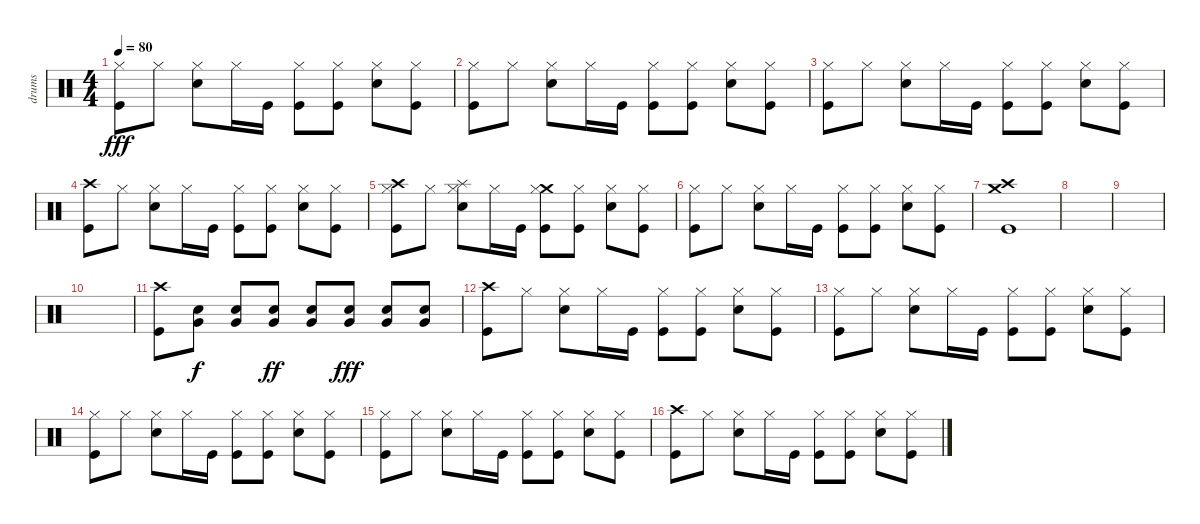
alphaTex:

\track ("drums" "drums") {instrument percussion}
\staff {score}
\articulation defaults
\ts (4 4)
\tempo 80
\clef neutral
\ks c
("Hi-Hat (closed)" "Kick (hit)").8{dy fff} "Hi-Hat (closed)".8 ("Hi-Hat (closed)" "Snare (hit) 2").8 "Hi-Hat (closed)".16 "Kick (hit)".16 ("Hi-Hat (closed)" "Kick (hit)").8 ("Hi-Hat (closed)" "Kick (hit)").8 ("Hi-Hat (closed)" "Snare (hit) 2").8 ("Hi-Hat (closed)" "Kick (hit)").8 |
("Hi-Hat (closed)" "Kick (hit)").8 "Hi-Hat (closed)".8 ("Hi-Hat (closed)" "Snare (hit) 2").8 "Hi-Hat (closed)".16 "Kick (hit)".16 ("Hi-Hat (closed)" "Kick (hit)").8 ("Hi-Hat (closed)" "Kick (hit)").8 ("Hi-Hat (closed)" "Snare (hit) 2").8 ("Hi-Hat (closed)" "Kick (hit)").8 |
("Hi-Hat (closed)" "Kick (hit)").8 "Hi-Hat (closed)".8 ("Hi-Hat (closed)" "Snare (hit) 2").8 "Hi-Hat (closed)".16 "Kick (hit)".16 ("Hi-Hat (closed)" "Kick (hit)").8 ("Hi-Hat (closed)" "Kick (hit)").8 ("Hi-Hat (closed)" "Snare (hit) 2").8 ("Hi-Hat (closed)" "Kick (hit)").8 |
("Crash high (hit)" "Kick (hit)").8 "Hi-Hat (closed)".8 ("Hi-Hat (closed)" "Snare (hit) 2").8 "Hi-Hat (closed)".16 "Kick (hit)".16 ("Hi-Hat (closed)" "Kick (hit)").8 ("Hi-Hat (closed)" "Kick (hit)").8 ("Hi-Hat (closed)" "Snare (hit) 2").8 ("Hi-Hat (closed)" "Kick (hit)").8 |
("Crash high (hit)" "Hi-Hat (closed)" "Kick (hit)").8 "Hi-Hat (closed)".8 ("Splash (hit)" "Hi-Hat (closed)" "Snare (hit) 2").8 "Hi-Hat (closed)".16 "Kick (hit)".16 ("Crash medium (hit)" "Hi-Hat (closed)" "Kick (hit)").8 ("Hi-Hat (closed)" "Kick (hit)").8 ("Hi-Hat (closed)" "Snare (hit) 2").8 ("Hi-Hat (closed)" "Kick (hit)").8 |
("Hi-Hat (closed)" "Kick (hit)").8 "Hi-Hat (closed)".8 ("Hi-Hat (closed)" "Snare (hit) 2").8 "Hi-Hat (closed)".16 "Kick (hit)".16 ("Hi-Hat (closed)" "Kick (hit)").8 ("Hi-Hat (closed)" "Kick (hit)").8 ("Hi-Hat (closed)" "Snare (hit) 2").8 ("Hi-Hat (closed)" "Kick (hit)").8 |
("Crash high (hit)" "Crash medium (hit)" "Kick (hit)").1 |
|
|
|
("Crash high (hit)" "Kick (hit)").8 ("Very Low Tom (hit)" "Snare (hit) 2").8{dy f} ("Very Low Tom (hit)" "Snare (hit) 2").8 ("Very Low Tom (hit)" "Snare (hit) 2").8{dy ff} ("Very Low Tom (hit)" "Snare (hit) 2").8 ("Very Low Tom (hit)" "Snare (hit) 2").8{dy fff} ("Very Low Tom (hit)" "Snare (hit) 2").8 ("Very Low Tom (hit)" "Snare (hit) 2").8 |
("Crash high (hit)" "Kick (hit)").8 "Hi-Hat (closed)".8 ("Hi-Hat (closed)" "Snare (hit) 2").8 "Hi-Hat (closed)".16 "Kick (hit)".16 ("Hi-Hat (closed)" "Kick (hit)").8 ("Hi-Hat (closed)" "Kick (hit)").8 ("Hi-Hat (closed)" "Snare (hit) 2").8 ("Hi-Hat (closed)" "Kick (hit)").8 |
("Hi-Hat (closed)" "Kick (hit)").8 "Hi-Hat (closed)".8 ("Hi-Hat (closed)" "Snare (hit) 2").8 "Hi-Hat (closed)".16 "Kick (hit)".16 ("Hi-Hat (closed)" "Kick (hit)").8 ("Hi-Hat (closed)" "Kick (hit)").8 ("Hi-Hat (closed)" "Snare (hit) 2").8 ("Hi-Hat (closed)" "Kick (hit)").8 |
("Hi-Hat (closed)" "Kick (hit)").8 "Hi-Hat (closed)".8 ("Hi-Hat (closed)" "Snare (hit) 2").8 "Hi-Hat (closed)".16 "Kick (hit)".16 ("Hi-Hat (closed)" "Kick (hit)").8 ("Hi-Hat (closed)" "Kick (hit)").8 ("Hi-Hat (closed)" "Snare (hit) 2").8 ("Hi-Hat (closed)" "Kick (hit)").8 |
("Hi-Hat (closed)" "Kick (hit)").8 "Hi-Hat (closed)".8 ("Hi-Hat (closed)" "Snare (hit) 2").8 "Hi-Hat (closed)".16 "Kick (hit)".16 ("Hi-Hat (closed)" "Kick (hit)").8 ("Hi-Hat (closed)" "Kick (hit)").8 ("Hi-Hat (closed)" "Snare (hit) 2").8 ("Hi-Hat (closed)" "Kick (hit)").8 |
("Crash high (hit)" "Kick (hit)").8 "Hi-Hat (closed)".8 ("Hi-Hat (closed)" "Snare (hit) 2").8 "Hi-Hat (closed)".16 "Kick (hit)".16 ("Hi-Hat (closed)" "Kick (hit)").8 ("Hi-Hat (closed)" "Kick (hit)").8 ("Hi-Hat (closed)" "Snare (hit) 2").8 ("Hi-Hat (closed)" "Kick (hit)").8
